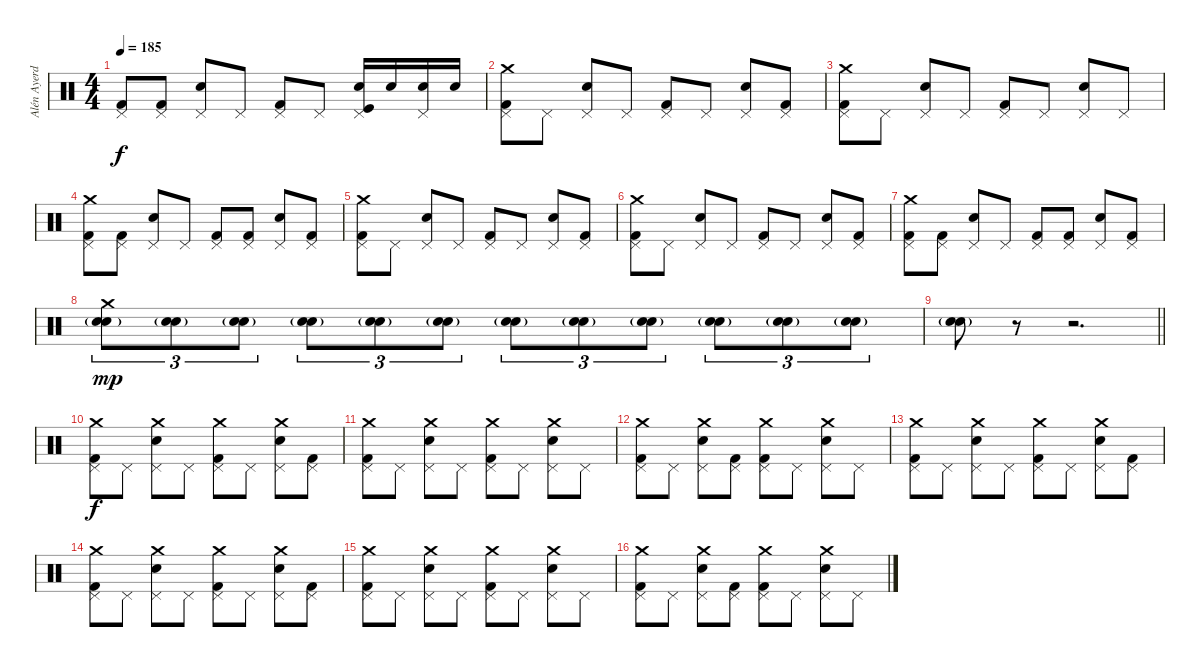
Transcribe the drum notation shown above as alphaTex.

\track ("Alén Ayerdi - Batería" "Alén Ayerd") {instrument percussion}
\staff {score}
\articulation defaults
\ts (4 4)
\tempo 185
\clef neutral
\ks c
("Pedal Hi-Hat (hit)" "Kick (hit) 2").8{dy f} ("Pedal Hi-Hat (hit)" "Kick (hit) 2").8 ("Pedal Hi-Hat (hit)" "Electric Snare (hit)").8 "Pedal Hi-Hat (hit)".8 ("Pedal Hi-Hat (hit)" "Kick (hit) 2").8 "Pedal Hi-Hat (hit)".8 ("Pedal Hi-Hat (hit)" "Electric Snare (hit)" "Kick (hit)").16 "Electric Snare (hit)".16 ("Pedal Hi-Hat (hit)" "Electric Snare (hit)").16 "Electric Snare (hit)".16 |
("Crash medium (hit)" "Pedal Hi-Hat (hit)" "Kick (hit) 2").8 "Pedal Hi-Hat (hit)".8 ("Pedal Hi-Hat (hit)" "Electric Snare (hit)").8 "Pedal Hi-Hat (hit)".8 ("Pedal Hi-Hat (hit)" "Kick (hit) 2").8 "Pedal Hi-Hat (hit)".8 ("Pedal Hi-Hat (hit)" "Electric Snare (hit)").8 ("Pedal Hi-Hat (hit)" "Kick (hit) 2").8 |
("Crash medium (hit)" "Pedal Hi-Hat (hit)" "Kick (hit) 2").8 "Pedal Hi-Hat (hit)".8 ("Pedal Hi-Hat (hit)" "Electric Snare (hit)").8 "Pedal Hi-Hat (hit)".8 ("Pedal Hi-Hat (hit)" "Kick (hit) 2").8 "Pedal Hi-Hat (hit)".8 ("Pedal Hi-Hat (hit)" "Electric Snare (hit)").8 "Pedal Hi-Hat (hit)".8 |
("Crash medium (hit)" "Pedal Hi-Hat (hit)" "Kick (hit) 2").8 ("Pedal Hi-Hat (hit)" "Kick (hit) 2").8 ("Pedal Hi-Hat (hit)" "Electric Snare (hit)").8 "Pedal Hi-Hat (hit)".8 ("Pedal Hi-Hat (hit)" "Kick (hit) 2").8 ("Pedal Hi-Hat (hit)" "Kick (hit) 2").8 ("Pedal Hi-Hat (hit)" "Electric Snare (hit)").8 ("Pedal Hi-Hat (hit)" "Kick (hit) 2").8 |
("Crash medium (hit)" "Pedal Hi-Hat (hit)" "Kick (hit) 2").8 "Pedal Hi-Hat (hit)".8 ("Pedal Hi-Hat (hit)" "Electric Snare (hit)").8 "Pedal Hi-Hat (hit)".8 ("Pedal Hi-Hat (hit)" "Kick (hit) 2").8 "Pedal Hi-Hat (hit)".8 ("Pedal Hi-Hat (hit)" "Electric Snare (hit)").8 ("Pedal Hi-Hat (hit)" "Kick (hit) 2").8 |
("Crash medium (hit)" "Pedal Hi-Hat (hit)" "Kick (hit) 2").8 "Pedal Hi-Hat (hit)".8 ("Pedal Hi-Hat (hit)" "Electric Snare (hit)").8 "Pedal Hi-Hat (hit)".8 ("Pedal Hi-Hat (hit)" "Kick (hit) 2").8 "Pedal Hi-Hat (hit)".8 ("Pedal Hi-Hat (hit)" "Electric Snare (hit)").8 ("Pedal Hi-Hat (hit)" "Kick (hit) 2").8 |
("Crash medium (hit)" "Pedal Hi-Hat (hit)" "Kick (hit) 2").8 ("Pedal Hi-Hat (hit)" "Kick (hit) 2").8 ("Pedal Hi-Hat (hit)" "Electric Snare (hit)").8 "Pedal Hi-Hat (hit)".8 ("Pedal Hi-Hat (hit)" "Kick (hit) 2").8 ("Pedal Hi-Hat (hit)" "Kick (hit) 2").8 ("Pedal Hi-Hat (hit)" "Electric Snare (hit)").8 ("Pedal Hi-Hat (hit)" "Kick (hit) 2").8 |
("Crash medium (hit)" "Snare (hit) 2"{g} "Electric Snare (hit)"{g}).8{tu (3 2) dy mp} ("Snare (hit) 2"{g} "Electric Snare (hit)"{g}).8{tu (3 2)} ("Snare (hit) 2"{g} "Electric Snare (hit)").8{tu (3 2)} ("Snare (hit) 2"{g} "Electric Snare (hit)").8{tu (3 2)} ("Snare (hit) 2"{g} "Electric Snare (hit)").8{tu (3 2)} ("Snare (hit) 2"{g} "Electric Snare (hit)").8{tu (3 2)} ("Snare (hit) 2"{g} "Electric Snare (hit)").8{tu (3 2)} ("Snare (hit) 2"{g} "Electric Snare (hit)").8{tu (3 2)} ("Snare (hit) 2"{g} "Electric Snare (hit)").8{tu (3 2)} ("Snare (hit) 2"{g} "Electric Snare (hit)").8{tu (3 2)} ("Snare (hit) 2"{g} "Electric Snare (hit)").8{tu (3 2)} ("Snare (hit) 2"{g} "Electric Snare (hit)").8{tu (3 2)} |
\barLineRight lightlight
("Snare (hit) 2"{g} "Electric Snare (hit)").8 r.8 r.2{d} |
\section ("" "")
("Crash medium (hit)" "Pedal Hi-Hat (hit)" "Kick (hit) 2").8{dy f} "Pedal Hi-Hat (hit)".8 ("Crash medium (hit)" "Pedal Hi-Hat (hit)" "Electric Snare (hit)").8 "Pedal Hi-Hat (hit)".8 ("Crash medium (hit)" "Pedal Hi-Hat (hit)" "Kick (hit) 2").8 "Pedal Hi-Hat (hit)".8 ("Crash medium (hit)" "Pedal Hi-Hat (hit)" "Electric Snare (hit)").8 ("Pedal Hi-Hat (hit)" "Kick (hit) 2").8 |
("Crash medium (hit)" "Pedal Hi-Hat (hit)" "Kick (hit) 2").8 "Pedal Hi-Hat (hit)".8 ("Crash medium (hit)" "Pedal Hi-Hat (hit)" "Electric Snare (hit)").8 "Pedal Hi-Hat (hit)".8 ("Crash medium (hit)" "Pedal Hi-Hat (hit)" "Kick (hit) 2").8 "Pedal Hi-Hat (hit)".8 ("Crash medium (hit)" "Pedal Hi-Hat (hit)" "Electric Snare (hit)").8 "Pedal Hi-Hat (hit)".8 |
("Crash medium (hit)" "Pedal Hi-Hat (hit)" "Kick (hit) 2").8 "Pedal Hi-Hat (hit)".8 ("Crash medium (hit)" "Pedal Hi-Hat (hit)" "Electric Snare (hit)").8 ("Pedal Hi-Hat (hit)" "Kick (hit) 2").8 ("Crash medium (hit)" "Pedal Hi-Hat (hit)" "Kick (hit) 2").8 "Pedal Hi-Hat (hit)".8 ("Crash medium (hit)" "Pedal Hi-Hat (hit)" "Electric Snare (hit)").8 "Pedal Hi-Hat (hit)".8 |
("Crash medium (hit)" "Pedal Hi-Hat (hit)" "Kick (hit) 2").8 "Pedal Hi-Hat (hit)".8 ("Crash medium (hit)" "Pedal Hi-Hat (hit)" "Electric Snare (hit)").8 "Pedal Hi-Hat (hit)".8 ("Crash medium (hit)" "Pedal Hi-Hat (hit)" "Kick (hit) 2").8 "Pedal Hi-Hat (hit)".8 ("Crash medium (hit)" "Pedal Hi-Hat (hit)" "Electric Snare (hit)").8 ("Pedal Hi-Hat (hit)" "Kick (hit) 2").8 |
("Crash medium (hit)" "Pedal Hi-Hat (hit)" "Kick (hit) 2").8 "Pedal Hi-Hat (hit)".8 ("Crash medium (hit)" "Pedal Hi-Hat (hit)" "Electric Snare (hit)").8 "Pedal Hi-Hat (hit)".8 ("Crash medium (hit)" "Pedal Hi-Hat (hit)" "Kick (hit) 2").8 "Pedal Hi-Hat (hit)".8 ("Crash medium (hit)" "Pedal Hi-Hat (hit)" "Electric Snare (hit)").8 ("Pedal Hi-Hat (hit)" "Kick (hit) 2").8 |
("Crash medium (hit)" "Pedal Hi-Hat (hit)" "Kick (hit) 2").8 "Pedal Hi-Hat (hit)".8 ("Crash medium (hit)" "Pedal Hi-Hat (hit)" "Electric Snare (hit)").8 "Pedal Hi-Hat (hit)".8 ("Crash medium (hit)" "Pedal Hi-Hat (hit)" "Kick (hit) 2").8 "Pedal Hi-Hat (hit)".8 ("Crash medium (hit)" "Pedal Hi-Hat (hit)" "Electric Snare (hit)").8 "Pedal Hi-Hat (hit)".8 |
("Crash medium (hit)" "Pedal Hi-Hat (hit)" "Kick (hit) 2").8 "Pedal Hi-Hat (hit)".8 ("Crash medium (hit)" "Pedal Hi-Hat (hit)" "Electric Snare (hit)").8 ("Pedal Hi-Hat (hit)" "Kick (hit) 2").8 ("Crash medium (hit)" "Pedal Hi-Hat (hit)" "Kick (hit) 2").8 "Pedal Hi-Hat (hit)".8 ("Crash medium (hit)" "Pedal Hi-Hat (hit)" "Electric Snare (hit)").8 "Pedal Hi-Hat (hit)".8
